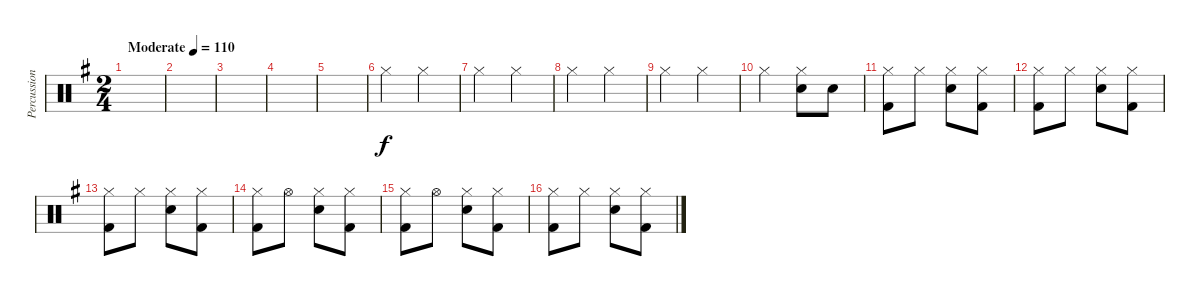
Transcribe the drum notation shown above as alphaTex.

\track ("Percussion" "Percussion") {instrument percussion}
\staff {score}
\articulation defaults
\ts (2 4)
\tempo (110 "Moderate")
\clef neutral
\ks g
|
|
|
|
|
"Hi-Hat (closed)".4 "Hi-Hat (closed)".4 |
"Hi-Hat (closed)".4 "Hi-Hat (closed)".4 |
"Hi-Hat (closed)".4 "Hi-Hat (closed)".4 |
"Hi-Hat (closed)".4 "Hi-Hat (closed)".4 |
"Hi-Hat (closed)".4 ("Hi-Hat (closed)" "Electric Snare (hit)").8 "Electric Snare (hit)".8 |
("Hi-Hat (closed)" "Kick (hit) 2").8 "Hi-Hat (closed)".8 ("Hi-Hat (closed)" "Electric Snare (hit)").8 ("Hi-Hat (closed)" "Kick (hit) 2").8 |
("Hi-Hat (closed)" "Kick (hit) 2").8 "Hi-Hat (closed)".8 ("Hi-Hat (closed)" "Electric Snare (hit)").8 ("Hi-Hat (closed)" "Kick (hit) 2").8 |
("Hi-Hat (closed)" "Kick (hit) 2").8 "Hi-Hat (closed)".8 ("Hi-Hat (closed)" "Electric Snare (hit)").8 ("Hi-Hat (closed)" "Kick (hit) 2").8 |
("Hi-Hat (closed)" "Kick (hit) 2").8 "Hi-Hat (open)".8 ("Hi-Hat (closed)" "Electric Snare (hit)").8 ("Hi-Hat (closed)" "Kick (hit) 2").8 |
("Hi-Hat (closed)" "Kick (hit) 2").8 "Hi-Hat (open)".8 ("Hi-Hat (closed)" "Electric Snare (hit)").8 ("Hi-Hat (closed)" "Kick (hit) 2").8 |
("Hi-Hat (closed)" "Kick (hit) 2").8 "Hi-Hat (closed)".8 ("Hi-Hat (closed)" "Electric Snare (hit)").8 ("Hi-Hat (closed)" "Kick (hit) 2").8
